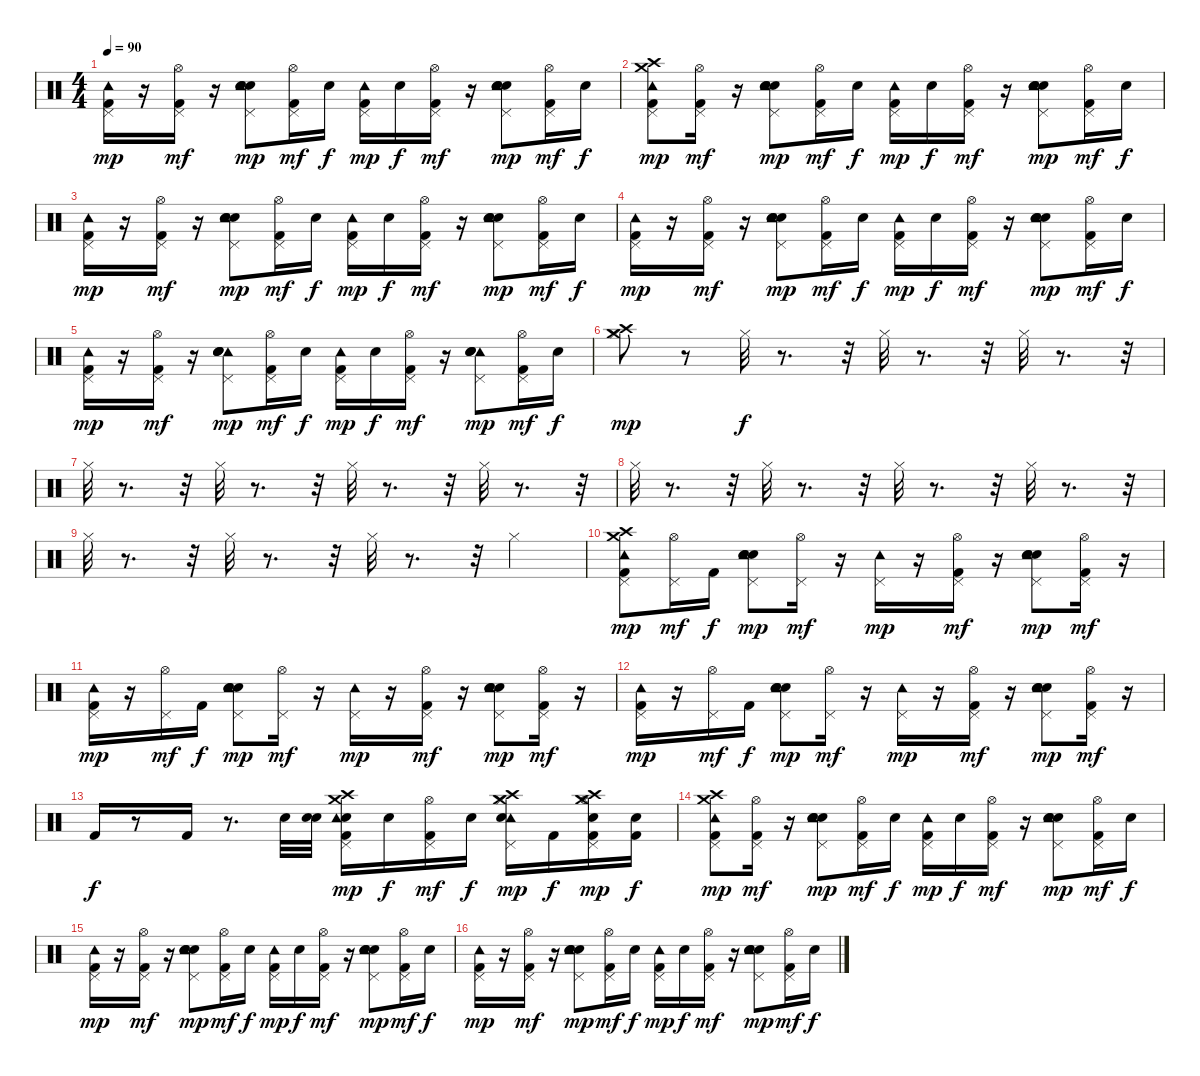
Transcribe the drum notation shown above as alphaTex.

\track "" {instrument percussion}
\staff {score}
\articulation defaults
\ts (4 4)
\tempo 90
\clef neutral
\ks c
("Kick (hit) 2" "Tambourine (hit)" "Pedal Hi-Hat (hit)").16{dy mp} r.16 ("Kick (hit) 2" "Hi-Hat (open)" "Pedal Hi-Hat (hit)").16{dy mf} r.16 ("Electric Snare (hit)" "Hand Clap (hit)" "Snare (hit) 2" "Tambourine (hit)" "Pedal Hi-Hat (hit)").8{dy mp} ("Kick (hit) 2" "Hi-Hat (open)" "Pedal Hi-Hat (hit)").16{dy mf} "Snare (hit) 2".16{dy f} ("Kick (hit) 2" "Tambourine (hit)" "Pedal Hi-Hat (hit)").16{dy mp} "Snare (hit) 2".16{dy f} ("Kick (hit) 2" "Hi-Hat (open)" "Pedal Hi-Hat (hit)").16{dy mf} r.16 ("Electric Snare (hit)" "Hand Clap (hit)" "Snare (hit) 2" "Tambourine (hit)" "Pedal Hi-Hat (hit)").8{dy mp} ("Kick (hit) 2" "Hi-Hat (open)" "Pedal Hi-Hat (hit)").16{dy mf} "Snare (hit) 2".16{dy f} |
("Kick (hit) 2" "Tambourine (hit)" "Crash high (hit)" "Crash medium (hit)" "Pedal Hi-Hat (hit)").8{dy mp} ("Kick (hit) 2" "Hi-Hat (open)" "Pedal Hi-Hat (hit)").16{dy mf} r.16 ("Electric Snare (hit)" "Snare (hit) 2" "Hand Clap (hit)" "Tambourine (hit)" "Pedal Hi-Hat (hit)").8{dy mp} ("Kick (hit) 2" "Hi-Hat (open)" "Pedal Hi-Hat (hit)").16{dy mf} "Snare (hit) 2".16{dy f} ("Kick (hit) 2" "Tambourine (hit)" "Pedal Hi-Hat (hit)").16{dy mp} "Snare (hit) 2".16{dy f} ("Kick (hit) 2" "Hi-Hat (open)" "Pedal Hi-Hat (hit)").16{dy mf} r.16 ("Electric Snare (hit)" "Snare (hit) 2" "Hand Clap (hit)" "Tambourine (hit)" "Pedal Hi-Hat (hit)").8{dy mp} ("Kick (hit) 2" "Hi-Hat (open)" "Pedal Hi-Hat (hit)").16{dy mf} "Snare (hit) 2".16{dy f} |
("Kick (hit) 2" "Tambourine (hit)" "Pedal Hi-Hat (hit)").16{dy mp} r.16 ("Kick (hit) 2" "Hi-Hat (open)" "Pedal Hi-Hat (hit)").16{dy mf} r.16 ("Electric Snare (hit)" "Hand Clap (hit)" "Snare (hit) 2" "Tambourine (hit)" "Pedal Hi-Hat (hit)").8{dy mp} ("Kick (hit) 2" "Hi-Hat (open)" "Pedal Hi-Hat (hit)").16{dy mf} "Snare (hit) 2".16{dy f} ("Kick (hit) 2" "Tambourine (hit)" "Pedal Hi-Hat (hit)").16{dy mp} "Snare (hit) 2".16{dy f} ("Kick (hit) 2" "Hi-Hat (open)" "Pedal Hi-Hat (hit)").16{dy mf} r.16 ("Electric Snare (hit)" "Hand Clap (hit)" "Snare (hit) 2" "Tambourine (hit)" "Pedal Hi-Hat (hit)").8{dy mp} ("Kick (hit) 2" "Hi-Hat (open)" "Pedal Hi-Hat (hit)").16{dy mf} "Snare (hit) 2".16{dy f} |
("Kick (hit) 2" "Tambourine (hit)" "Pedal Hi-Hat (hit)").16{dy mp} r.16 ("Kick (hit) 2" "Hi-Hat (open)" "Pedal Hi-Hat (hit)").16{dy mf} r.16 ("Electric Snare (hit)" "Hand Clap (hit)" "Snare (hit) 2" "Tambourine (hit)" "Pedal Hi-Hat (hit)").8{dy mp} ("Kick (hit) 2" "Hi-Hat (open)" "Pedal Hi-Hat (hit)").16{dy mf} "Snare (hit) 2".16{dy f} ("Kick (hit) 2" "Tambourine (hit)" "Pedal Hi-Hat (hit)").16{dy mp} "Snare (hit) 2".16{dy f} ("Kick (hit) 2" "Hi-Hat (open)" "Pedal Hi-Hat (hit)").16{dy mf} r.16 ("Electric Snare (hit)" "Hand Clap (hit)" "Snare (hit) 2" "Tambourine (hit)" "Pedal Hi-Hat (hit)").8{dy mp} ("Kick (hit) 2" "Hi-Hat (open)" "Pedal Hi-Hat (hit)").16{dy mf} "Snare (hit) 2".16{dy f} |
("Tambourine (hit)" "Pedal Hi-Hat (hit)" "Kick (hit) 2").16{dy mp} r.16 ("Hi-Hat (open)" "Pedal Hi-Hat (hit)" "Kick (hit) 2").16{dy mf} r.16 ("Tambourine (hit)" "Pedal Hi-Hat (hit)" "Electric Snare (hit)" "Hand Clap (hit)" "Snare (hit) 2").8{dy mp} ("Hi-Hat (open)" "Pedal Hi-Hat (hit)" "Kick (hit) 2").16{dy mf} "Snare (hit) 2".16{dy f} ("Tambourine (hit)" "Pedal Hi-Hat (hit)" "Kick (hit) 2").16{dy mp} "Snare (hit) 2".16{dy f} ("Hi-Hat (open)" "Pedal Hi-Hat (hit)" "Kick (hit) 2").16{dy mf} r.16 ("Tambourine (hit)" "Pedal Hi-Hat (hit)" "Electric Snare (hit)" "Hand Clap (hit)" "Snare (hit) 2").8{dy mp} ("Hi-Hat (open)" "Pedal Hi-Hat (hit)" "Kick (hit) 2").16{dy mf} "Snare (hit) 2".16{dy f} |
("Crash high (hit)" "Crash medium (hit)" "Hi-Hat (closed)").8{dy mp} r.8 "Hi-Hat (closed)".32{dy f} r.8{d} r.32 "Hi-Hat (closed)".32 r.8{d} r.32 "Hi-Hat (closed)".32 r.8{d} r.32 |
"Hi-Hat (closed)".32 r.8{d} r.32 "Hi-Hat (closed)".32 r.8{d} r.32 "Hi-Hat (closed)".32 r.8{d} r.32 "Hi-Hat (closed)".32 r.8{d} r.32 |
"Hi-Hat (closed)".32 r.8{d} r.32 "Hi-Hat (closed)".32 r.8{d} r.32 "Hi-Hat (closed)".32 r.8{d} r.32 "Hi-Hat (closed)".32 r.8{d} r.32 |
"Hi-Hat (closed)".32 r.8{d} r.32 "Hi-Hat (closed)".32 r.8{d} r.32 "Hi-Hat (closed)".32 r.8{d} r.32 "Hi-Hat (closed)".4 |
("Kick (hit) 2" "Tambourine (hit)" "Crash high (hit)" "Crash medium (hit)" "Pedal Hi-Hat (hit)").8{dy mp} ("Hi-Hat (open)" "Pedal Hi-Hat (hit)").16{dy mf} "Kick (hit) 2".16{dy f} ("Hand Clap (hit)" "Electric Snare (hit)" "Snare (hit) 2" "Tambourine (hit)" "Pedal Hi-Hat (hit)").8{dy mp} ("Hi-Hat (open)" "Pedal Hi-Hat (hit)").16{dy mf} r.16 ("Tambourine (hit)" "Pedal Hi-Hat (hit)").16{dy mp} r.16 ("Hi-Hat (open)" "Kick (hit) 2" "Pedal Hi-Hat (hit)").16{dy mf} r.16 ("Hand Clap (hit)" "Electric Snare (hit)" "Snare (hit) 2" "Tambourine (hit)" "Pedal Hi-Hat (hit)").8{dy mp} ("Hi-Hat (open)" "Kick (hit) 2" "Pedal Hi-Hat (hit)").16{dy mf} r.16 |
("Kick (hit) 2" "Tambourine (hit)" "Pedal Hi-Hat (hit)").16{dy mp} r.16 ("Hi-Hat (open)" "Pedal Hi-Hat (hit)").16{dy mf} "Kick (hit) 2".16{dy f} ("Hand Clap (hit)" "Electric Snare (hit)" "Snare (hit) 2" "Tambourine (hit)" "Pedal Hi-Hat (hit)").8{dy mp} ("Hi-Hat (open)" "Pedal Hi-Hat (hit)").16{dy mf} r.16 ("Tambourine (hit)" "Pedal Hi-Hat (hit)").16{dy mp} r.16 ("Hi-Hat (open)" "Kick (hit) 2" "Pedal Hi-Hat (hit)").16{dy mf} r.16 ("Hand Clap (hit)" "Electric Snare (hit)" "Snare (hit) 2" "Tambourine (hit)" "Pedal Hi-Hat (hit)").8{dy mp} ("Hi-Hat (open)" "Kick (hit) 2" "Pedal Hi-Hat (hit)").16{dy mf} r.16 |
("Kick (hit) 2" "Tambourine (hit)" "Pedal Hi-Hat (hit)").16{dy mp} r.16 ("Hi-Hat (open)" "Pedal Hi-Hat (hit)").16{dy mf} "Kick (hit) 2".16{dy f} ("Hand Clap (hit)" "Electric Snare (hit)" "Snare (hit) 2" "Tambourine (hit)" "Pedal Hi-Hat (hit)").8{dy mp} ("Hi-Hat (open)" "Pedal Hi-Hat (hit)").16{dy mf} r.16 ("Tambourine (hit)" "Pedal Hi-Hat (hit)").16{dy mp} r.16 ("Hi-Hat (open)" "Kick (hit) 2" "Pedal Hi-Hat (hit)").16{dy mf} r.16 ("Hand Clap (hit)" "Electric Snare (hit)" "Snare (hit) 2" "Tambourine (hit)" "Pedal Hi-Hat (hit)").8{dy mp} ("Hi-Hat (open)" "Kick (hit) 2" "Pedal Hi-Hat (hit)").16{dy mf} r.16 |
"Kick (hit) 2".16{dy f} r.8 "Kick (hit) 2".16 r.8{d} "Electric Snare (hit)".32 ("Electric Snare (hit)" "Electric Snare (hit)").32 ("Kick (hit) 2" "Crash high (hit)" "Crash medium (hit)" "Electric Snare (hit)" "Tambourine (hit)" "Pedal Hi-Hat (hit)").16{dy mp} "Electric Snare (hit)".16{dy f} ("Kick (hit) 2" "Hi-Hat (open)" "Pedal Hi-Hat (hit)").16{dy mf} "Electric Snare (hit)".16{dy f} ("Crash high (hit)" "Crash medium (hit)" "Tambourine (hit)" "Pedal Hi-Hat (hit)" "Electric Snare (hit)" "Hi-Hat (closed)").16{dy mp} "Kick (hit) 2".16{dy f} ("Kick (hit) 2" "Hi-Hat (open)" "Pedal Hi-Hat (hit)" "Crash high (hit)" "Crash medium (hit)" "Electric Snare (hit)").16{dy mp} ("Kick (hit) 2" "Electric Snare (hit)").16{dy f} |
("Kick (hit) 2" "Tambourine (hit)" "Crash high (hit)" "Crash medium (hit)" "Pedal Hi-Hat (hit)").8{dy mp} ("Kick (hit) 2" "Hi-Hat (open)" "Pedal Hi-Hat (hit)").16{dy mf} r.16 ("Electric Snare (hit)" "Snare (hit) 2" "Hand Clap (hit)" "Tambourine (hit)" "Pedal Hi-Hat (hit)").8{dy mp} ("Kick (hit) 2" "Hi-Hat (open)" "Pedal Hi-Hat (hit)").16{dy mf} "Snare (hit) 2".16{dy f} ("Kick (hit) 2" "Tambourine (hit)" "Pedal Hi-Hat (hit)").16{dy mp} "Snare (hit) 2".16{dy f} ("Kick (hit) 2" "Hi-Hat (open)" "Pedal Hi-Hat (hit)").16{dy mf} r.16 ("Electric Snare (hit)" "Snare (hit) 2" "Hand Clap (hit)" "Tambourine (hit)" "Pedal Hi-Hat (hit)").8{dy mp} ("Kick (hit) 2" "Hi-Hat (open)" "Pedal Hi-Hat (hit)").16{dy mf} "Snare (hit) 2".16{dy f} |
("Kick (hit) 2" "Tambourine (hit)" "Pedal Hi-Hat (hit)").16{dy mp} r.16 ("Kick (hit) 2" "Hi-Hat (open)" "Pedal Hi-Hat (hit)").16{dy mf} r.16 ("Electric Snare (hit)" "Hand Clap (hit)" "Snare (hit) 2" "Tambourine (hit)" "Pedal Hi-Hat (hit)").8{dy mp} ("Kick (hit) 2" "Hi-Hat (open)" "Pedal Hi-Hat (hit)").16{dy mf} "Snare (hit) 2".16{dy f} ("Kick (hit) 2" "Tambourine (hit)" "Pedal Hi-Hat (hit)").16{dy mp} "Snare (hit) 2".16{dy f} ("Kick (hit) 2" "Hi-Hat (open)" "Pedal Hi-Hat (hit)").16{dy mf} r.16 ("Electric Snare (hit)" "Hand Clap (hit)" "Snare (hit) 2" "Tambourine (hit)" "Pedal Hi-Hat (hit)").8{dy mp} ("Kick (hit) 2" "Hi-Hat (open)" "Pedal Hi-Hat (hit)").16{dy mf} "Snare (hit) 2".16{dy f} |
("Kick (hit) 2" "Tambourine (hit)" "Pedal Hi-Hat (hit)").16{dy mp} r.16 ("Kick (hit) 2" "Hi-Hat (open)" "Pedal Hi-Hat (hit)").16{dy mf} r.16 ("Electric Snare (hit)" "Hand Clap (hit)" "Snare (hit) 2" "Tambourine (hit)" "Pedal Hi-Hat (hit)").8{dy mp} ("Kick (hit) 2" "Hi-Hat (open)" "Pedal Hi-Hat (hit)").16{dy mf} "Snare (hit) 2".16{dy f} ("Kick (hit) 2" "Tambourine (hit)" "Pedal Hi-Hat (hit)").16{dy mp} "Snare (hit) 2".16{dy f} ("Kick (hit) 2" "Hi-Hat (open)" "Pedal Hi-Hat (hit)").16{dy mf} r.16 ("Electric Snare (hit)" "Hand Clap (hit)" "Snare (hit) 2" "Tambourine (hit)" "Pedal Hi-Hat (hit)").8{dy mp} ("Kick (hit) 2" "Hi-Hat (open)" "Pedal Hi-Hat (hit)").16{dy mf} "Snare (hit) 2".16{dy f}
